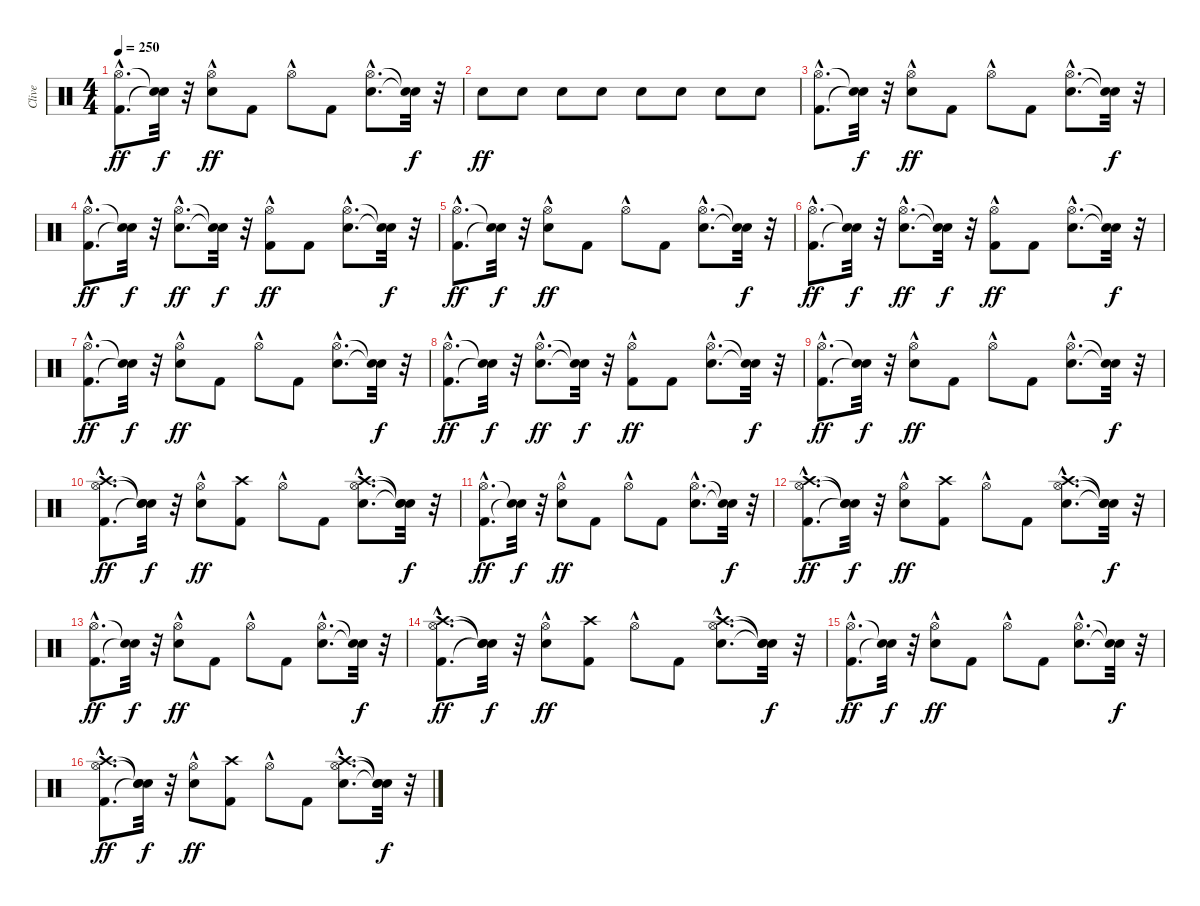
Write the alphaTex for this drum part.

\track ("Clive" "Clive") {instrument percussion}
\staff {score}
\articulation defaults
\ts (4 4)
\tempo 250
\clef neutral
\ks c
("Kick (hit) 2"{hac} "Hi-Hat (open)"{hac}).8{d dy ff} ("Snare (hit)"{t} "Snare (hit)"{t}).32{dy f} r.32 ("Snare (hit) 2" "Hi-Hat (open)"{hac}).8{dy ff} "Kick (hit) 2".8 "Hi-Hat (open)"{hac}.8 "Kick (hit) 2".8 ("Snare (hit) 2"{hac} "Hi-Hat (open)"{hac}).8{d} ("Snare (hit)"{t} "Snare (hit)"{t}).32{dy f} r.32 |
"Snare (hit) 2".8{dy ff} "Snare (hit) 2".8 "Snare (hit) 2".8 "Snare (hit) 2".8 "Snare (hit) 2".8 "Snare (hit) 2".8 "Snare (hit) 2".8 "Snare (hit) 2".8 |
("Kick (hit) 2"{hac} "Hi-Hat (open)"{hac}).8{d} ("Snare (hit)"{t} "Snare (hit)"{t}).32{dy f} r.32 ("Snare (hit) 2" "Hi-Hat (open)"{hac}).8{dy ff} "Kick (hit) 2".8 "Hi-Hat (open)"{hac}.8 "Kick (hit) 2".8 ("Snare (hit) 2"{hac} "Hi-Hat (open)"{hac}).8{d} ("Snare (hit)"{t} "Snare (hit)"{t}).32{dy f} r.32 |
("Kick (hit) 2"{hac} "Hi-Hat (open)"{hac}).8{d dy ff} ("Snare (hit)"{t} "Snare (hit)"{t}).32{dy f} r.32 ("Snare (hit) 2"{hac} "Hi-Hat (open)"{hac}).8{d dy ff} ("Snare (hit)"{t} "Snare (hit)"{t}).32{dy f} r.32 ("Kick (hit) 2" "Hi-Hat (open)"{hac}).8{dy ff} "Kick (hit) 2".8 ("Snare (hit) 2"{hac} "Hi-Hat (open)"{hac}).8{d} ("Snare (hit)"{t} "Snare (hit)"{t}).32{dy f} r.32 |
("Kick (hit) 2"{hac} "Hi-Hat (open)"{hac}).8{d dy ff} ("Snare (hit)"{t} "Snare (hit)"{t}).32{dy f} r.32 ("Snare (hit) 2" "Hi-Hat (open)"{hac}).8{dy ff} "Kick (hit) 2".8 "Hi-Hat (open)"{hac}.8 "Kick (hit) 2".8 ("Snare (hit) 2"{hac} "Hi-Hat (open)"{hac}).8{d} ("Snare (hit)"{t} "Snare (hit)"{t}).32{dy f} r.32 |
("Kick (hit) 2"{hac} "Hi-Hat (open)"{hac}).8{d dy ff} ("Snare (hit)"{t} "Snare (hit)"{t}).32{dy f} r.32 ("Snare (hit) 2"{hac} "Hi-Hat (open)"{hac}).8{d dy ff} ("Snare (hit)"{t} "Snare (hit)"{t}).32{dy f} r.32 ("Kick (hit) 2" "Hi-Hat (open)"{hac}).8{dy ff} "Kick (hit) 2".8 ("Snare (hit) 2"{hac} "Hi-Hat (open)"{hac}).8{d} ("Snare (hit)"{t} "Snare (hit)"{t}).32{dy f} r.32 |
("Kick (hit) 2"{hac} "Hi-Hat (open)"{hac}).8{d dy ff} ("Snare (hit)"{t} "Snare (hit)"{t}).32{dy f} r.32 ("Snare (hit) 2" "Hi-Hat (open)"{hac}).8{dy ff} "Kick (hit) 2".8 "Hi-Hat (open)"{hac}.8 "Kick (hit) 2".8 ("Snare (hit) 2"{hac} "Hi-Hat (open)"{hac}).8{d} ("Snare (hit)"{t} "Snare (hit)"{t}).32{dy f} r.32 |
("Kick (hit) 2"{hac} "Hi-Hat (open)"{hac}).8{d dy ff} ("Snare (hit)"{t} "Snare (hit)"{t}).32{dy f} r.32 ("Snare (hit) 2"{hac} "Hi-Hat (open)"{hac}).8{d dy ff} ("Snare (hit)"{t} "Snare (hit)"{t}).32{dy f} r.32 ("Kick (hit) 2" "Hi-Hat (open)"{hac}).8{dy ff} "Kick (hit) 2".8 ("Snare (hit) 2"{hac} "Hi-Hat (open)"{hac}).8{d} ("Snare (hit)"{t} "Snare (hit)"{t}).32{dy f} r.32 |
("Kick (hit) 2"{hac} "Hi-Hat (open)"{hac}).8{d dy ff} ("Snare (hit)"{t} "Snare (hit)"{t}).32{dy f} r.32 ("Snare (hit) 2" "Hi-Hat (open)"{hac}).8{dy ff} "Kick (hit) 2".8 "Hi-Hat (open)"{hac}.8 "Kick (hit) 2".8 ("Snare (hit) 2"{hac} "Hi-Hat (open)"{hac}).8{d} ("Snare (hit)"{t} "Snare (hit)"{t}).32{dy f} r.32 |
("Kick (hit) 2"{hac} "Hi-Hat (open)"{hac} "Crash high (hit)"{hac}).8{d dy ff} ("Snare (hit)"{t} "Snare (hit)"{t} "Snare (hit)"{t}).32{dy f} r.32 ("Snare (hit) 2" "Hi-Hat (open)"{hac}).8{dy ff} ("Kick (hit) 2" "Crash high (hit)").8 "Hi-Hat (open)"{hac}.8 "Kick (hit) 2".8 ("Snare (hit) 2"{hac} "Hi-Hat (open)"{hac} "Crash high (hit)"{hac}).8{d} ("Snare (hit)"{t} "Snare (hit)"{t} "Snare (hit)"{t}).32{dy f} r.32 |
("Kick (hit) 2"{hac} "Hi-Hat (open)"{hac}).8{d dy ff} ("Snare (hit)"{t} "Snare (hit)"{t}).32{dy f} r.32 ("Snare (hit) 2" "Hi-Hat (open)"{hac}).8{dy ff} "Kick (hit) 2".8 "Hi-Hat (open)"{hac}.8 "Kick (hit) 2".8 ("Snare (hit) 2"{hac} "Hi-Hat (open)"{hac}).8{d} ("Snare (hit)"{t} "Snare (hit)"{t}).32{dy f} r.32 |
("Kick (hit) 2"{hac} "Hi-Hat (open)"{hac} "Crash high (hit)"{hac}).8{d dy ff} ("Snare (hit)"{t} "Snare (hit)"{t} "Snare (hit)"{t}).32{dy f} r.32 ("Snare (hit) 2" "Hi-Hat (open)"{hac}).8{dy ff} ("Kick (hit) 2" "Crash high (hit)").8 "Hi-Hat (open)"{hac}.8 "Kick (hit) 2".8 ("Snare (hit) 2"{hac} "Hi-Hat (open)"{hac} "Crash high (hit)"{hac}).8{d} ("Snare (hit)"{t} "Snare (hit)"{t} "Snare (hit)"{t}).32{dy f} r.32 |
("Kick (hit) 2"{hac} "Hi-Hat (open)"{hac}).8{d dy ff} ("Snare (hit)"{t} "Snare (hit)"{t}).32{dy f} r.32 ("Snare (hit) 2" "Hi-Hat (open)"{hac}).8{dy ff} "Kick (hit) 2".8 "Hi-Hat (open)"{hac}.8 "Kick (hit) 2".8 ("Snare (hit) 2"{hac} "Hi-Hat (open)"{hac}).8{d} ("Snare (hit)"{t} "Snare (hit)"{t}).32{dy f} r.32 |
("Kick (hit) 2"{hac} "Hi-Hat (open)"{hac} "Crash high (hit)"{hac}).8{d dy ff} ("Snare (hit)"{t} "Snare (hit)"{t} "Snare (hit)"{t}).32{dy f} r.32 ("Snare (hit) 2" "Hi-Hat (open)"{hac}).8{dy ff} ("Kick (hit) 2" "Crash high (hit)").8 "Hi-Hat (open)"{hac}.8 "Kick (hit) 2".8 ("Snare (hit) 2"{hac} "Hi-Hat (open)"{hac} "Crash high (hit)"{hac}).8{d} ("Snare (hit)"{t} "Snare (hit)"{t} "Snare (hit)"{t}).32{dy f} r.32 |
("Kick (hit) 2"{hac} "Hi-Hat (open)"{hac}).8{d dy ff} ("Snare (hit)"{t} "Snare (hit)"{t}).32{dy f} r.32 ("Snare (hit) 2" "Hi-Hat (open)"{hac}).8{dy ff} "Kick (hit) 2".8 "Hi-Hat (open)"{hac}.8 "Kick (hit) 2".8 ("Snare (hit) 2"{hac} "Hi-Hat (open)"{hac}).8{d} ("Snare (hit)"{t} "Snare (hit)"{t}).32{dy f} r.32 |
("Kick (hit) 2"{hac} "Hi-Hat (open)"{hac} "Crash high (hit)"{hac}).8{d dy ff} ("Snare (hit)"{t} "Snare (hit)"{t} "Snare (hit)"{t}).32{dy f} r.32 ("Snare (hit) 2" "Hi-Hat (open)"{hac}).8{dy ff} ("Kick (hit) 2" "Crash high (hit)").8 "Hi-Hat (open)"{hac}.8 "Kick (hit) 2".8 ("Snare (hit) 2"{hac} "Hi-Hat (open)"{hac} "Crash high (hit)"{hac}).8{d} ("Snare (hit)"{t} "Snare (hit)"{t} "Snare (hit)"{t}).32{dy f} r.32
